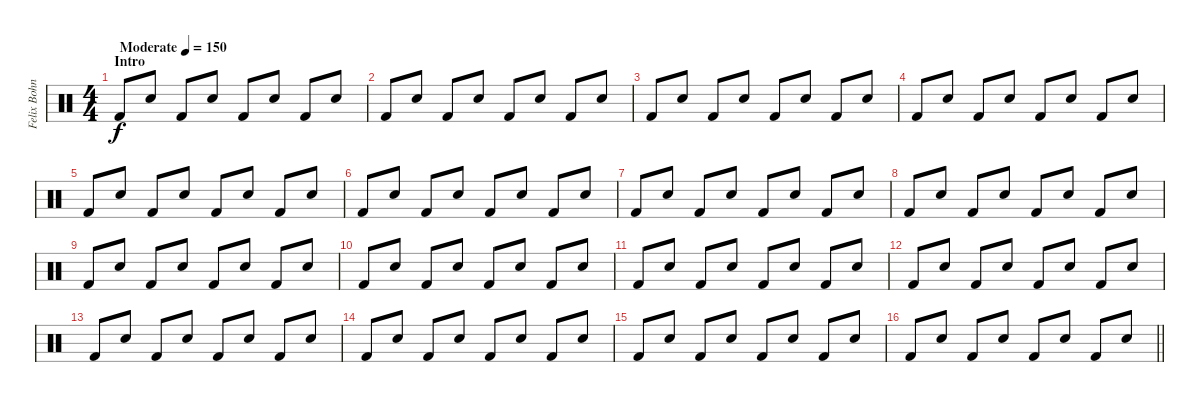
\track ("Felix Bohnke - Drums" "Felix Bohn") {mute instrument percussion}
\staff {score}
\articulation defaults
\ts (4 4)
\section ("" "Intro")
\tempo (150 "Moderate")
\clef neutral
\ks c "Kick (hit) 2".8{dy f} "Snare (hit) 2".8 "Kick (hit) 2".8 "Snare (hit) 2".8 "Kick (hit) 2".8 "Snare (hit) 2".8 "Kick (hit) 2".8 "Snare (hit) 2".8
|
"Kick (hit) 2".8 "Snare (hit) 2".8 "Kick (hit) 2".8 "Snare (hit) 2".8 "Kick (hit) 2".8 "Snare (hit) 2".8 "Kick (hit) 2".8 "Snare (hit) 2".8 |
"Kick (hit) 2".8 "Snare (hit) 2".8 "Kick (hit) 2".8 "Snare (hit) 2".8 "Kick (hit) 2".8 "Snare (hit) 2".8 "Kick (hit) 2".8 "Snare (hit) 2".8 |
"Kick (hit) 2".8 "Snare (hit) 2".8 "Kick (hit) 2".8 "Snare (hit) 2".8 "Kick (hit) 2".8 "Snare (hit) 2".8 "Kick (hit) 2".8 "Snare (hit) 2".8 |
"Kick (hit) 2".8 "Snare (hit) 2".8 "Kick (hit) 2".8 "Snare (hit) 2".8 "Kick (hit) 2".8 "Snare (hit) 2".8 "Kick (hit) 2".8 "Snare (hit) 2".8 |
"Kick (hit) 2".8 "Snare (hit) 2".8 "Kick (hit) 2".8 "Snare (hit) 2".8 "Kick (hit) 2".8 "Snare (hit) 2".8 "Kick (hit) 2".8 "Snare (hit) 2".8 |
"Kick (hit) 2".8 "Snare (hit) 2".8 "Kick (hit) 2".8 "Snare (hit) 2".8 "Kick (hit) 2".8 "Snare (hit) 2".8 "Kick (hit) 2".8 "Snare (hit) 2".8 |
"Kick (hit) 2".8 "Snare (hit) 2".8 "Kick (hit) 2".8 "Snare (hit) 2".8 "Kick (hit) 2".8 "Snare (hit) 2".8 "Kick (hit) 2".8 "Snare (hit) 2".8 |
"Kick (hit) 2".8 "Snare (hit) 2".8 "Kick (hit) 2".8 "Snare (hit) 2".8 "Kick (hit) 2".8 "Snare (hit) 2".8 "Kick (hit) 2".8 "Snare (hit) 2".8 |
"Kick (hit) 2".8 "Snare (hit) 2".8 "Kick (hit) 2".8 "Snare (hit) 2".8 "Kick (hit) 2".8 "Snare (hit) 2".8 "Kick (hit) 2".8 "Snare (hit) 2".8 |
"Kick (hit) 2".8 "Snare (hit) 2".8 "Kick (hit) 2".8 "Snare (hit) 2".8 "Kick (hit) 2".8 "Snare (hit) 2".8 "Kick (hit) 2".8 "Snare (hit) 2".8 |
"Kick (hit) 2".8 "Snare (hit) 2".8 "Kick (hit) 2".8 "Snare (hit) 2".8 "Kick (hit) 2".8 "Snare (hit) 2".8 "Kick (hit) 2".8 "Snare (hit) 2".8 |
"Kick (hit) 2".8 "Snare (hit) 2".8 "Kick (hit) 2".8 "Snare (hit) 2".8 "Kick (hit) 2".8 "Snare (hit) 2".8 "Kick (hit) 2".8 "Snare (hit) 2".8 |
"Kick (hit) 2".8 "Snare (hit) 2".8 "Kick (hit) 2".8 "Snare (hit) 2".8 "Kick (hit) 2".8 "Snare (hit) 2".8 "Kick (hit) 2".8 "Snare (hit) 2".8 |
"Kick (hit) 2".8 "Snare (hit) 2".8 "Kick (hit) 2".8 "Snare (hit) 2".8 "Kick (hit) 2".8 "Snare (hit) 2".8 "Kick (hit) 2".8 "Snare (hit) 2".8 |
\barLineRight lightlight "Kick (hit) 2".8 "Snare (hit) 2".8 "Kick (hit) 2".8 "Snare (hit) 2".8 "Kick (hit) 2".8 "Snare (hit) 2".8 "Kick (hit) 2".8 "Snare (hit) 2".8
